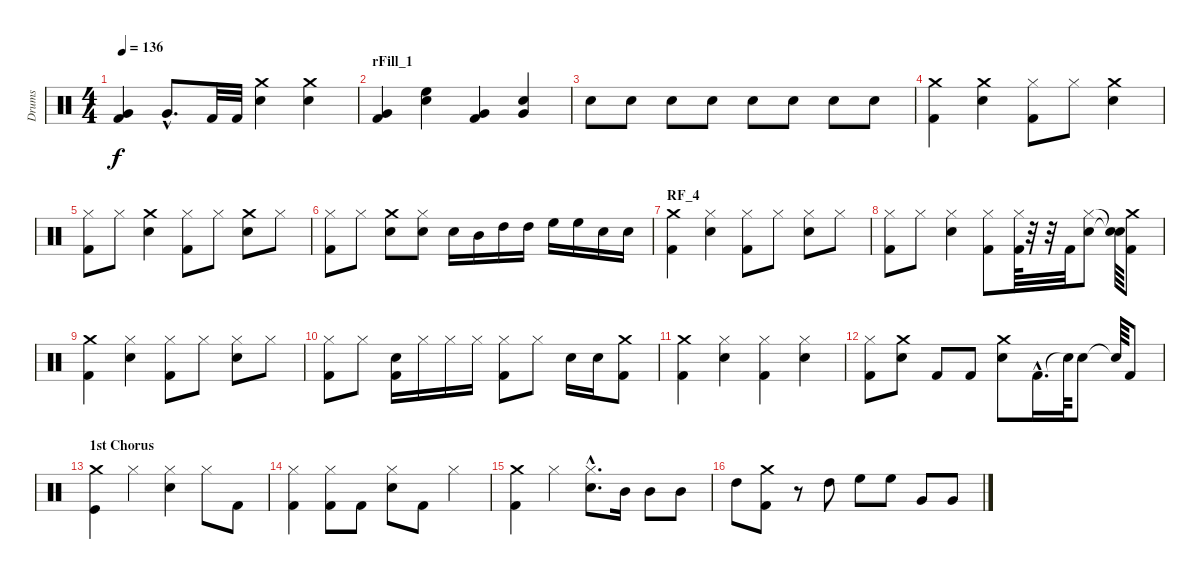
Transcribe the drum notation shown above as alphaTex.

\track ("Drums" "Drums") {instrument percussion}
\staff {score}
\articulation defaults
\ts (4 4)
\tempo 136
\clef neutral
\ks c
("Very Low Tom (hit)" "Kick (hit) 2").4{dy f} "Very Low Tom (hit)"{hac}.8{d} "Kick (hit) 2".32 "Kick (hit) 2".32 ("Snare (hit) 2" "Crash medium (hit)").4 ("Snare (hit) 2" "Crash medium (hit)").4 |
\section ("" "rFill_1")
("Very Low Tom (hit)" "Kick (hit) 2").4 ("High Floor Tom (hit)" "Snare (hit) 2").4 ("Very Low Tom (hit)" "Kick (hit) 2").4 ("Snare (hit) 2" "Very Low Tom (hit)").4 |
"Snare (hit) 2".8 "Snare (hit) 2".8 "Snare (hit) 2".8 "Snare (hit) 2".8 "Snare (hit) 2".8 "Snare (hit) 2".8 "Snare (hit) 2".8 "Snare (hit) 2".8 |
("Kick (hit) 2" "Crash medium (hit)").4 ("Snare (hit) 2" "Crash medium (hit)").4 ("Kick (hit) 2" "Hi-Hat (closed)").8 "Hi-Hat (closed)".8 ("Crash medium (hit)" "Snare (hit) 2").4 |
("Kick (hit) 2" "Hi-Hat (closed)").8 "Hi-Hat (closed)".8 ("Crash medium (hit)" "Snare (hit) 2").4 ("Kick (hit) 2" "Hi-Hat (closed)").8 "Hi-Hat (closed)".8 ("Snare (hit) 2" "Crash medium (hit)").8 "Hi-Hat (closed)".8 |
("Hi-Hat (closed)" "Kick (hit) 2").8 "Hi-Hat (closed)".8 ("Crash medium (hit)" "Snare (hit) 2").8 ("Snare (hit) 2" "Hi-Hat (closed)").8 "Snare (hit) 2".16 "Mid Tom (hit)".16 "High Tom (hit)".16 "High Tom (hit)".16 "High Floor Tom (hit)".16 "High Floor Tom (hit)".16 "Snare (hit) 2".16 "Snare (hit) 2".16 |
\section ("" "RF_4")
("Kick (hit) 2" "Crash medium (hit)").4 ("Hi-Hat (closed)" "Snare (hit) 2").4 ("Hi-Hat (closed)" "Kick (hit) 2").8 "Hi-Hat (closed)".8 ("Hi-Hat (closed)" "Snare (hit) 2").8 "Hi-Hat (closed)".8 |
("Kick (hit) 2" "Hi-Hat (closed)").8 "Hi-Hat (closed)".8 ("Hi-Hat (closed)" "Snare (hit) 2").4 ("Kick (hit) 2" "Hi-Hat (closed)").8 ("Kick (hit) 2" "Hi-Hat (closed)").64 r.32 r.32 "Kick (hit) 2".32 ("Snare (hit) 2" "Hi-Hat (closed)").8 ("Snare (hit)"{t} "Snare (hit)"{t}).64 ("Kick (hit) 2" "Crash medium (hit)").8 |
("Kick (hit) 2" "Crash medium (hit)").4 ("Snare (hit) 2" "Hi-Hat (closed)").4 ("Kick (hit) 2" "Hi-Hat (closed)").8 "Hi-Hat (closed)".8 ("Snare (hit) 2" "Hi-Hat (closed)").8 "Hi-Hat (closed)".8 |
("Hi-Hat (closed)" "Kick (hit) 2").8 "Hi-Hat (closed)".8 ("Snare (hit) 2" "Kick (hit) 2").16 "Hi-Hat (closed)".16 "Hi-Hat (closed)".16 "Hi-Hat (closed)".16 ("Hi-Hat (closed)" "Kick (hit) 2").8 "Hi-Hat (closed)".8 "Snare (hit) 2".16 "Snare (hit) 2".16 ("Crash medium (hit)" "Kick (hit) 2").8 |
("Kick (hit) 2" "Crash medium (hit)").4 ("Hi-Hat (closed)" "Snare (hit) 2").4 ("Hi-Hat (closed)" "Kick (hit) 2").4 ("Snare (hit) 2" "Hi-Hat (closed)").4 |
("Hi-Hat (closed)" "Kick (hit) 2").8 ("Snare (hit) 2" "Crash medium (hit)").8 "Kick (hit) 2".8 "Kick (hit) 2".8 ("Crash medium (hit)" "Snare (hit) 2").8 "Kick (hit) 2"{hac}.16{d} "Snare (hit)"{t}.64 "Snare (hit) 2".8 "Snare (hit)"{t}.64 "Kick (hit) 2".8 |
\section ("" "1st Chorus")
("Kick (hit)" "Crash medium (hit)").4 "Hi-Hat (closed)".4 ("Snare (hit) 2" "Hi-Hat (closed)").4 "Hi-Hat (closed)".8 "Kick (hit) 2".8 |
("Hi-Hat (closed)" "Kick (hit) 2").4 ("Hi-Hat (closed)" "Kick (hit) 2").8 "Kick (hit) 2".8 ("Snare (hit) 2" "Hi-Hat (closed)").8 "Kick (hit) 2".8 "Hi-Hat (closed)".4 |
("Kick (hit) 2" "Crash medium (hit)").4 "Hi-Hat (closed)".4 ("Snare (hit) 2"{hac} "Hi-Hat (closed)"{hac}).8{d} "Mid Tom (hit)".16 "Mid Tom (hit)".8 "Mid Tom (hit)".8 |
"High Tom (hit)".8 ("Crash medium (hit)" "Kick (hit) 2").8 r.8 "High Tom (hit)".8 "High Floor Tom (hit)".8 "High Floor Tom (hit)".8 "Very Low Tom (hit)".8 "Very Low Tom (hit)".8
